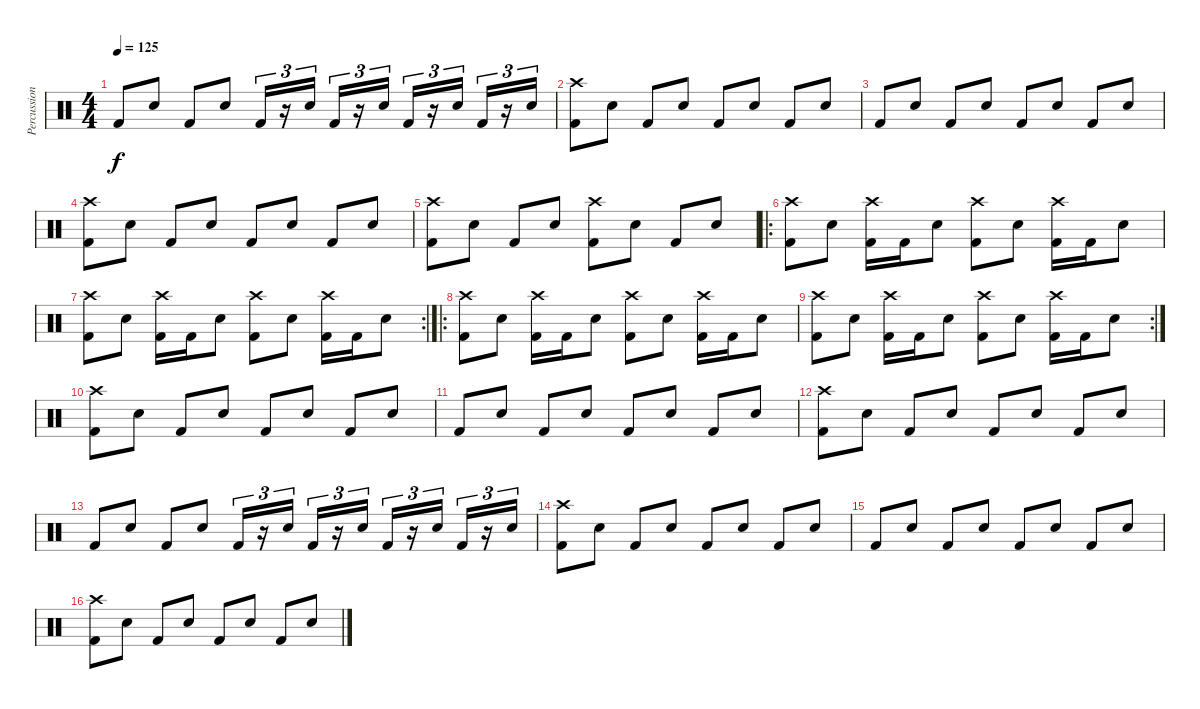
\track ("Percussion" "Percussion") {instrument percussion}
\staff {score}
\articulation defaults
\ts (4 4)
\tempo 125
\clef neutral
\ks c "Kick (hit) 2".8{dy f} "Electric Snare (hit)".8 "Kick (hit) 2".8 "Electric Snare (hit)".8 "Kick (hit) 2".16{tu (3 2)}
r.16{tu (3 2)} "Electric Snare (hit)".16{tu (3 2)} "Kick (hit) 2".16{tu (3 2)} r.16{tu (3 2)} "Electric Snare (hit)".16{tu (3 2)} "Kick (hit) 2".16{tu (3 2)} r.16{tu (3 2)} "Electric Snare (hit)".16{tu (3 2)} "Kick (hit) 2".16{tu (3 2)} r.16{tu (3 2)} "Electric Snare (hit)".16{tu (3 2)} |
("Crash high (hit)" "Kick (hit) 2").8 "Electric Snare (hit)".8 "Kick (hit) 2".8 "Electric Snare (hit)".8 "Kick (hit) 2".8 "Electric Snare (hit)".8 "Kick (hit) 2".8 "Electric Snare (hit)".8 |
"Kick (hit) 2".8 "Electric Snare (hit)".8 "Kick (hit) 2".8 "Electric Snare (hit)".8 "Kick (hit) 2".8 "Electric Snare (hit)".8 "Kick (hit) 2".8 "Electric Snare (hit)".8 |
("Crash high (hit)" "Kick (hit) 2").8 "Electric Snare (hit)".8 "Kick (hit) 2".8 "Electric Snare (hit)".8 "Kick (hit) 2".8 "Electric Snare (hit)".8 "Kick (hit) 2".8 "Electric Snare (hit)".8 |
("Crash high (hit)" "Kick (hit) 2").8 "Electric Snare (hit)".8 "Kick (hit) 2".8 "Electric Snare (hit)".8 ("Crash high (hit)" "Kick (hit) 2").8 "Electric Snare (hit)".8 "Kick (hit) 2".8 "Electric Snare (hit)".8 |
\ro
("Crash high (hit)" "Kick (hit) 2").8 "Electric Snare (hit)".8 ("Crash high (hit)" "Kick (hit) 2").16 "Kick (hit) 2".16 "Electric Snare (hit)".8 ("Crash high (hit)" "Kick (hit) 2").8 "Electric Snare (hit)".8 ("Crash high (hit)" "Kick (hit) 2").16 "Kick (hit) 2".16 "Electric Snare (hit)".8 |
\rc 2
("Crash high (hit)" "Kick (hit) 2").8 "Electric Snare (hit)".8 ("Crash high (hit)" "Kick (hit) 2").16 "Kick (hit) 2".16 "Electric Snare (hit)".8 ("Crash high (hit)" "Kick (hit) 2").8 "Electric Snare (hit)".8 ("Crash high (hit)" "Kick (hit) 2").16 "Kick (hit) 2".16 "Electric Snare (hit)".8 |
\ro
("Crash high (hit)" "Kick (hit) 2").8 "Electric Snare (hit)".8 ("Crash high (hit)" "Kick (hit) 2").16 "Kick (hit) 2".16 "Electric Snare (hit)".8 ("Crash high (hit)" "Kick (hit) 2").8 "Electric Snare (hit)".8 ("Crash high (hit)" "Kick (hit) 2").16 "Kick (hit) 2".16 "Electric Snare (hit)".8 |
\rc 2
("Crash high (hit)" "Kick (hit) 2").8 "Electric Snare (hit)".8 ("Crash high (hit)" "Kick (hit) 2").16 "Kick (hit) 2".16 "Electric Snare (hit)".8 ("Crash high (hit)" "Kick (hit) 2").8 "Electric Snare (hit)".8 ("Crash high (hit)" "Kick (hit) 2").16 "Kick (hit) 2".16 "Electric Snare (hit)".8 |
("Crash high (hit)" "Kick (hit) 2").8 "Electric Snare (hit)".8 "Kick (hit) 2".8 "Electric Snare (hit)".8 "Kick (hit) 2".8 "Electric Snare (hit)".8 "Kick (hit) 2".8 "Electric Snare (hit)".8 |
"Kick (hit) 2".8 "Electric Snare (hit)".8 "Kick (hit) 2".8 "Electric Snare (hit)".8 "Kick (hit) 2".8 "Electric Snare (hit)".8 "Kick (hit) 2".8 "Electric Snare (hit)".8 |
("Crash high (hit)" "Kick (hit) 2").8 "Electric Snare (hit)".8 "Kick (hit) 2".8 "Electric Snare (hit)".8 "Kick (hit) 2".8 "Electric Snare (hit)".8 "Kick (hit) 2".8 "Electric Snare (hit)".8 |
"Kick (hit) 2".8 "Electric Snare (hit)".8 "Kick (hit) 2".8 "Electric Snare (hit)".8 "Kick (hit) 2".16{tu (3 2)} r.16{tu (3 2)} "Electric Snare (hit)".16{tu (3 2)} "Kick (hit) 2".16{tu (3 2)} r.16{tu (3 2)} "Electric Snare (hit)".16{tu (3 2)} "Kick (hit) 2".16{tu (3 2)} r.16{tu (3 2)} "Electric Snare (hit)".16{tu (3 2)} "Kick (hit) 2".16{tu (3 2)} r.16{tu (3 2)} "Electric Snare (hit)".16{tu (3 2)} |
("Crash high (hit)" "Kick (hit) 2").8 "Electric Snare (hit)".8 "Kick (hit) 2".8 "Electric Snare (hit)".8 "Kick (hit) 2".8 "Electric Snare (hit)".8 "Kick (hit) 2".8 "Electric Snare (hit)".8 |
"Kick (hit) 2".8 "Electric Snare (hit)".8 "Kick (hit) 2".8 "Electric Snare (hit)".8 "Kick (hit) 2".8 "Electric Snare (hit)".8 "Kick (hit) 2".8 "Electric Snare (hit)".8 |
("Crash high (hit)" "Kick (hit) 2").8 "Electric Snare (hit)".8 "Kick (hit) 2".8 "Electric Snare (hit)".8 "Kick (hit) 2".8 "Electric Snare (hit)".8 "Kick (hit) 2".8 "Electric Snare (hit)".8
